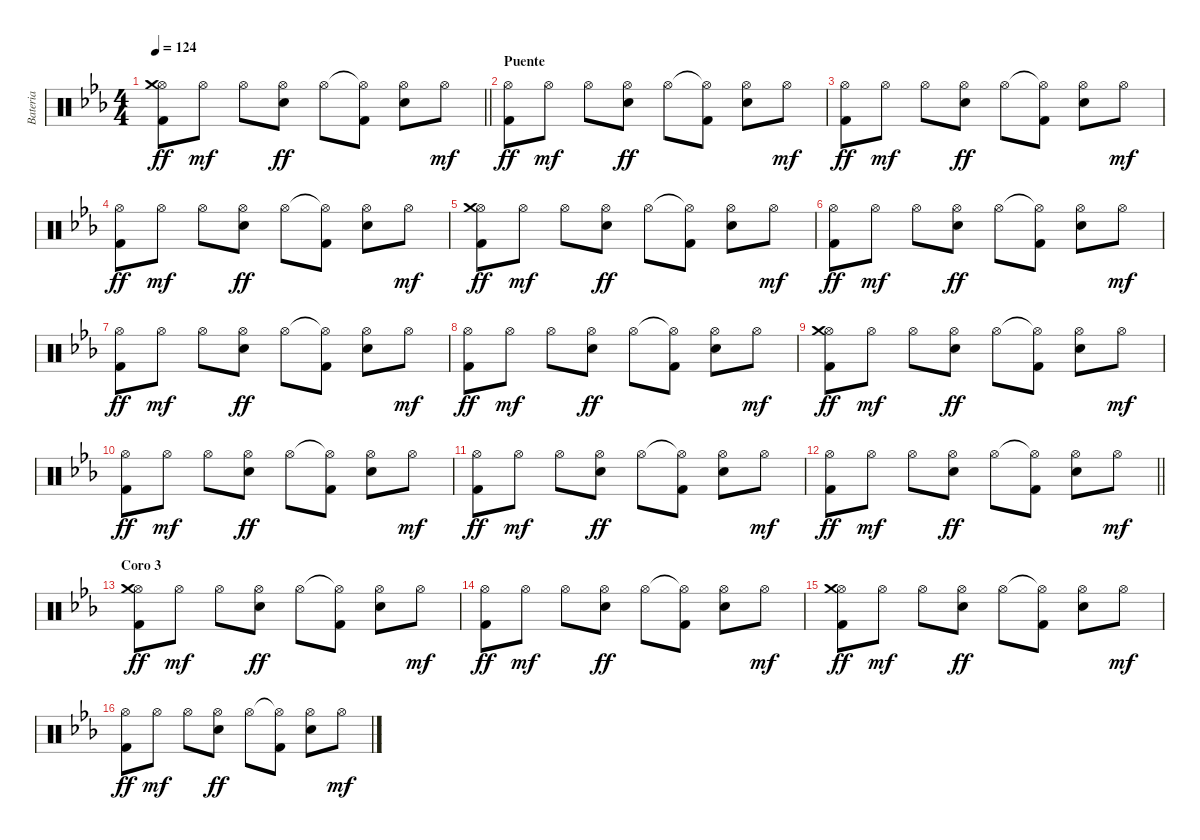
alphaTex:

\track ("Bateria" "Bateria") {instrument percussion}
\staff {score}
\articulation defaults
\ts (4 4)
\tempo 124
\clef neutral
\barLineRight lightlight
\ks eb
("Hi-Hat (open)" "Kick (hit) 2" "Crash medium (hit)").8{dy ff} "Hi-Hat (open)".8{dy mf} "Hi-Hat (open)".8 ("Hi-Hat (open)" "Electric Snare (hit)").8{dy ff} "Hi-Hat (open)".8 ("Hi-Hat (open)"{t} "Kick (hit) 2").8 ("Hi-Hat (open)" "Electric Snare (hit)").8 "Hi-Hat (open)".8{dy mf} |
\section ("" "Puente")
("Hi-Hat (open)" "Kick (hit) 2").8{dy ff} "Hi-Hat (open)".8{dy mf} "Hi-Hat (open)".8 ("Hi-Hat (open)" "Electric Snare (hit)").8{dy ff} "Hi-Hat (open)".8 ("Hi-Hat (open)"{t} "Kick (hit) 2").8 ("Hi-Hat (open)" "Electric Snare (hit)").8 "Hi-Hat (open)".8{dy mf} |
("Hi-Hat (open)" "Kick (hit) 2").8{dy ff} "Hi-Hat (open)".8{dy mf} "Hi-Hat (open)".8 ("Hi-Hat (open)" "Electric Snare (hit)").8{dy ff} "Hi-Hat (open)".8 ("Hi-Hat (open)"{t} "Kick (hit) 2").8 ("Hi-Hat (open)" "Electric Snare (hit)").8 "Hi-Hat (open)".8{dy mf} |
("Hi-Hat (open)" "Kick (hit) 2").8{dy ff} "Hi-Hat (open)".8{dy mf} "Hi-Hat (open)".8 ("Hi-Hat (open)" "Electric Snare (hit)").8{dy ff} "Hi-Hat (open)".8 ("Hi-Hat (open)"{t} "Kick (hit) 2").8 ("Hi-Hat (open)" "Electric Snare (hit)").8 "Hi-Hat (open)".8{dy mf} |
("Hi-Hat (open)" "Kick (hit) 2" "Crash medium (hit)").8{dy ff} "Hi-Hat (open)".8{dy mf} "Hi-Hat (open)".8 ("Hi-Hat (open)" "Electric Snare (hit)").8{dy ff} "Hi-Hat (open)".8 ("Hi-Hat (open)"{t} "Kick (hit) 2").8 ("Hi-Hat (open)" "Electric Snare (hit)").8 "Hi-Hat (open)".8{dy mf} |
("Hi-Hat (open)" "Kick (hit) 2").8{dy ff} "Hi-Hat (open)".8{dy mf} "Hi-Hat (open)".8 ("Hi-Hat (open)" "Electric Snare (hit)").8{dy ff} "Hi-Hat (open)".8 ("Hi-Hat (open)"{t} "Kick (hit) 2").8 ("Hi-Hat (open)" "Electric Snare (hit)").8 "Hi-Hat (open)".8{dy mf} |
("Hi-Hat (open)" "Kick (hit) 2").8{dy ff} "Hi-Hat (open)".8{dy mf} "Hi-Hat (open)".8 ("Hi-Hat (open)" "Electric Snare (hit)").8{dy ff} "Hi-Hat (open)".8 ("Hi-Hat (open)"{t} "Kick (hit) 2").8 ("Hi-Hat (open)" "Electric Snare (hit)").8 "Hi-Hat (open)".8{dy mf} |
("Hi-Hat (open)" "Kick (hit) 2").8{dy ff} "Hi-Hat (open)".8{dy mf} "Hi-Hat (open)".8 ("Hi-Hat (open)" "Electric Snare (hit)").8{dy ff} "Hi-Hat (open)".8 ("Hi-Hat (open)"{t} "Kick (hit) 2").8 ("Hi-Hat (open)" "Electric Snare (hit)").8 "Hi-Hat (open)".8{dy mf} |
("Hi-Hat (open)" "Kick (hit) 2" "Crash medium (hit)").8{dy ff} "Hi-Hat (open)".8{dy mf} "Hi-Hat (open)".8 ("Hi-Hat (open)" "Electric Snare (hit)").8{dy ff} "Hi-Hat (open)".8 ("Hi-Hat (open)"{t} "Kick (hit) 2").8 ("Hi-Hat (open)" "Electric Snare (hit)").8 "Hi-Hat (open)".8{dy mf} |
("Hi-Hat (open)" "Kick (hit) 2").8{dy ff} "Hi-Hat (open)".8{dy mf} "Hi-Hat (open)".8 ("Hi-Hat (open)" "Electric Snare (hit)").8{dy ff} "Hi-Hat (open)".8 ("Hi-Hat (open)"{t} "Kick (hit) 2").8 ("Hi-Hat (open)" "Electric Snare (hit)").8 "Hi-Hat (open)".8{dy mf} |
("Hi-Hat (open)" "Kick (hit) 2").8{dy ff} "Hi-Hat (open)".8{dy mf} "Hi-Hat (open)".8 ("Hi-Hat (open)" "Electric Snare (hit)").8{dy ff} "Hi-Hat (open)".8 ("Hi-Hat (open)"{t} "Kick (hit) 2").8 ("Hi-Hat (open)" "Electric Snare (hit)").8 "Hi-Hat (open)".8{dy mf} |
\barLineRight lightlight
("Hi-Hat (open)" "Kick (hit) 2").8{dy ff} "Hi-Hat (open)".8{dy mf} "Hi-Hat (open)".8 ("Hi-Hat (open)" "Electric Snare (hit)").8{dy ff} "Hi-Hat (open)".8 ("Hi-Hat (open)"{t} "Kick (hit) 2").8 ("Hi-Hat (open)" "Electric Snare (hit)").8 "Hi-Hat (open)".8{dy mf} |
\section ("" "Coro 3")
("Hi-Hat (open)" "Kick (hit) 2" "Crash medium (hit)").8{dy ff} "Hi-Hat (open)".8{dy mf} "Hi-Hat (open)".8 ("Hi-Hat (open)" "Electric Snare (hit)").8{dy ff} "Hi-Hat (open)".8 ("Hi-Hat (open)"{t} "Kick (hit) 2").8 ("Hi-Hat (open)" "Electric Snare (hit)").8 "Hi-Hat (open)".8{dy mf} |
("Hi-Hat (open)" "Kick (hit) 2").8{dy ff} "Hi-Hat (open)".8{dy mf} "Hi-Hat (open)".8 ("Hi-Hat (open)" "Electric Snare (hit)").8{dy ff} "Hi-Hat (open)".8 ("Hi-Hat (open)"{t} "Kick (hit) 2").8 ("Hi-Hat (open)" "Electric Snare (hit)").8 "Hi-Hat (open)".8{dy mf} |
("Hi-Hat (open)" "Kick (hit) 2" "Crash medium (hit)").8{dy ff} "Hi-Hat (open)".8{dy mf} "Hi-Hat (open)".8 ("Hi-Hat (open)" "Electric Snare (hit)").8{dy ff} "Hi-Hat (open)".8 ("Hi-Hat (open)"{t} "Kick (hit) 2").8 ("Hi-Hat (open)" "Electric Snare (hit)").8 "Hi-Hat (open)".8{dy mf} |
("Hi-Hat (open)" "Kick (hit) 2").8{dy ff} "Hi-Hat (open)".8{dy mf} "Hi-Hat (open)".8 ("Hi-Hat (open)" "Electric Snare (hit)").8{dy ff} "Hi-Hat (open)".8 ("Hi-Hat (open)"{t} "Kick (hit) 2").8 ("Hi-Hat (open)" "Electric Snare (hit)").8 "Hi-Hat (open)".8{dy mf}
